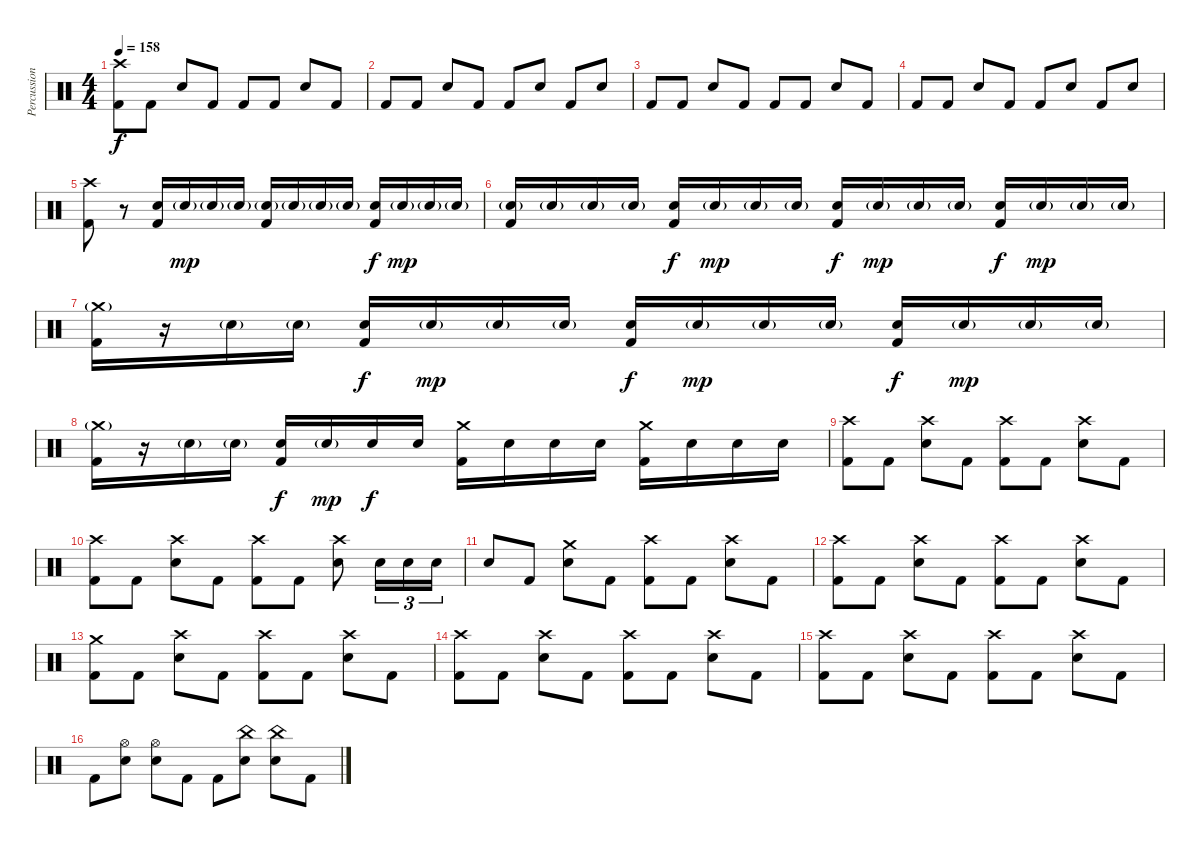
\track ("Percussion" "Percussion") {instrument percussion}
\staff {score}
\articulation defaults
\ts (4 4)
\tempo 158
\clef neutral
\ks c
("Crash high (hit)" "Kick (hit) 2").8{dy f} "Kick (hit) 2".8 "Snare (hit) 2".8 "Kick (hit) 2".8 "Kick (hit) 2".8 "Kick (hit) 2".8 "Snare (hit) 2".8 "Kick (hit) 2".8 |
"Kick (hit) 2".8 "Kick (hit) 2".8 "Snare (hit) 2".8 "Kick (hit) 2".8 "Kick (hit) 2".8 "Snare (hit) 2".8 "Kick (hit) 2".8 "Snare (hit) 2".8 |
"Kick (hit) 2".8 "Kick (hit) 2".8 "Snare (hit) 2".8 "Kick (hit) 2".8 "Kick (hit) 2".8 "Kick (hit) 2".8 "Snare (hit) 2".8 "Kick (hit) 2".8 |
"Kick (hit) 2".8 "Kick (hit) 2".8 "Snare (hit) 2".8 "Kick (hit) 2".8 "Kick (hit) 2".8 "Snare (hit) 2".8 "Kick (hit) 2".8 "Snare (hit) 2".8 |
("Crash high (hit)" "Kick (hit) 2").8 r.8 ("Snare (hit) 2" "Kick (hit) 2").16 "Snare (hit) 2"{g}.16{dy mp} "Snare (hit) 2"{g}.16 "Snare (hit) 2"{g}.16 ("Snare (hit) 2"{g} "Kick (hit) 2").16 "Snare (hit) 2"{g}.16 "Snare (hit) 2"{g}.16 "Snare (hit) 2"{g}.16 ("Snare (hit) 2" "Kick (hit) 2").16{dy f} "Snare (hit) 2"{g}.16{dy mp} "Snare (hit) 2"{g}.16 "Snare (hit) 2"{g}.16 |
("Snare (hit) 2"{g} "Kick (hit) 2").16 "Snare (hit) 2"{g}.16 "Snare (hit) 2"{g}.16 "Snare (hit) 2"{g}.16 ("Snare (hit) 2" "Kick (hit) 2").16{dy f} "Snare (hit) 2"{g}.16{dy mp} "Snare (hit) 2"{g}.16 "Snare (hit) 2"{g}.16 ("Snare (hit) 2" "Kick (hit) 2").16{dy f} "Snare (hit) 2"{g}.16{dy mp} "Snare (hit) 2"{g}.16 "Snare (hit) 2"{g}.16 ("Snare (hit) 2" "Kick (hit) 2").16{dy f} "Snare (hit) 2"{g}.16{dy mp} "Snare (hit) 2"{g}.16 "Snare (hit) 2"{g}.16 |
("Crash medium (hit)"{g} "Kick (hit) 2").16 r.16 "Snare (hit) 2"{g}.16 "Snare (hit) 2"{g}.16 ("Snare (hit) 2" "Kick (hit) 2").16{dy f} "Snare (hit) 2"{g}.16{dy mp} "Snare (hit) 2"{g}.16 "Snare (hit) 2"{g}.16 ("Snare (hit) 2" "Kick (hit) 2").16{dy f} "Snare (hit) 2"{g}.16{dy mp} "Snare (hit) 2"{g}.16 "Snare (hit) 2"{g}.16 ("Snare (hit) 2" "Kick (hit) 2").16{dy f} "Snare (hit) 2"{g}.16{dy mp} "Snare (hit) 2"{g}.16 "Snare (hit) 2"{g}.16 |
("Crash medium (hit)"{g} "Kick (hit) 2").16 r.16 "Snare (hit) 2"{g}.16 "Snare (hit) 2"{g}.16 ("Snare (hit) 2" "Kick (hit) 2").16{dy f} "Snare (hit) 2"{g}.16{dy mp} "Snare (hit) 2".16{dy f} "Snare (hit) 2".16 ("Crash medium (hit)" "Kick (hit) 2").16 "Snare (hit) 2".16 "Snare (hit) 2".16 "Snare (hit) 2".16 ("Crash medium (hit)" "Kick (hit) 2").16 "Snare (hit) 2".16 "Snare (hit) 2".16 "Snare (hit) 2".16 |
("Crash high (hit)" "Kick (hit) 2").8 "Kick (hit) 2".8 ("Crash high (hit)" "Snare (hit) 2").8 "Kick (hit) 2".8 ("Crash high (hit)" "Kick (hit) 2").8 "Kick (hit) 2".8 ("Crash high (hit)" "Snare (hit) 2").8 "Kick (hit) 2".8 |
("Crash high (hit)" "Kick (hit) 2").8 "Kick (hit) 2".8 ("Crash high (hit)" "Snare (hit) 2").8 "Kick (hit) 2".8 ("Crash high (hit)" "Kick (hit) 2").8 "Kick (hit) 2".8 ("Crash high (hit)" "Snare (hit) 2").8 "Snare (hit) 2".16{tu (3 2)} "Snare (hit) 2".16{tu (3 2)} "Snare (hit) 2".16{tu (3 2)} |
"Snare (hit) 2".8 "Kick (hit) 2".8 ("Crash medium (hit)" "Snare (hit) 2").8 "Kick (hit) 2".8 ("Crash high (hit)" "Kick (hit) 2").8 "Kick (hit) 2".8 ("Crash high (hit)" "Snare (hit) 2").8 "Kick (hit) 2".8 |
("Crash high (hit)" "Kick (hit) 2").8 "Kick (hit) 2".8 ("Crash high (hit)" "Snare (hit) 2").8 "Kick (hit) 2".8 ("Crash high (hit)" "Kick (hit) 2").8 "Kick (hit) 2".8 ("Crash high (hit)" "Snare (hit) 2").8 "Kick (hit) 2".8 |
("Crash medium (hit)" "Kick (hit) 2").8 "Kick (hit) 2".8 ("Crash high (hit)" "Snare (hit) 2").8 "Kick (hit) 2".8 ("Crash high (hit)" "Kick (hit) 2").8 "Kick (hit) 2".8 ("Crash high (hit)" "Snare (hit) 2").8 "Kick (hit) 2".8 |
("Crash high (hit)" "Kick (hit) 2").8 "Kick (hit) 2".8 ("Crash high (hit)" "Snare (hit) 2").8 "Kick (hit) 2".8 ("Crash high (hit)" "Kick (hit) 2").8 "Kick (hit) 2".8 ("Crash high (hit)" "Snare (hit) 2").8 "Kick (hit) 2".8 |
("Crash high (hit)" "Kick (hit) 2").8 "Kick (hit) 2".8 ("Crash high (hit)" "Snare (hit) 2").8 "Kick (hit) 2".8 ("Crash high (hit)" "Kick (hit) 2").8 "Kick (hit) 2".8 ("Crash high (hit)" "Snare (hit) 2").8 "Kick (hit) 2".8 |
"Kick (hit) 2".8 ("Hi-Hat (open)" "Snare (hit) 2").8 ("Hi-Hat (open)" "Snare (hit) 2").8 "Kick (hit) 2".8 "Kick (hit) 2".8 ("China (hit)" "Snare (hit) 2").8 ("China (hit)" "Snare (hit) 2").8 "Kick (hit) 2".8
